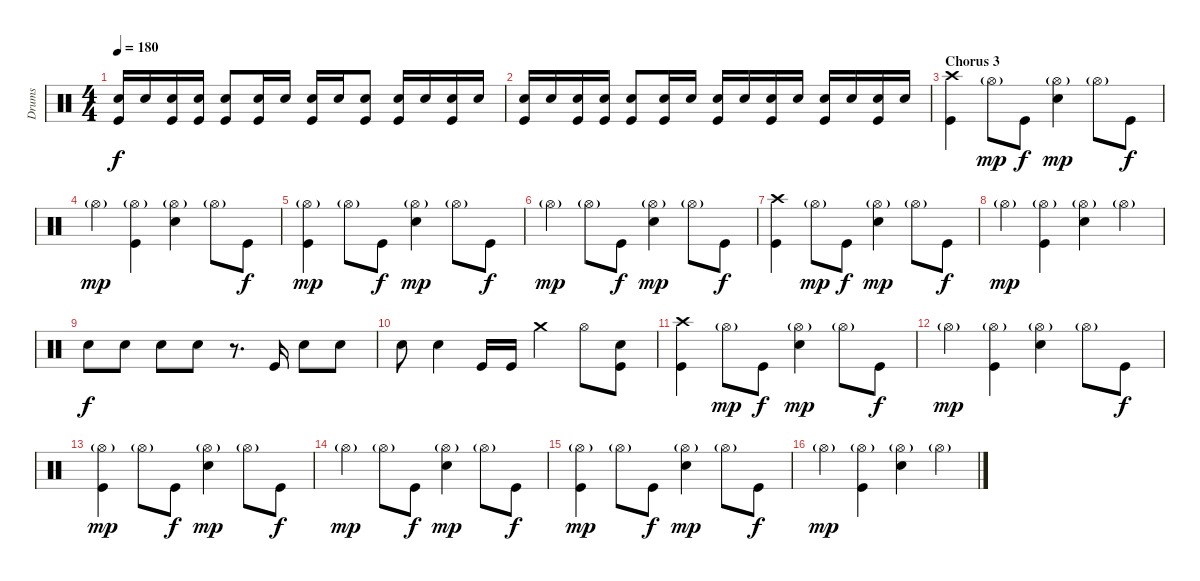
\track ("Drums" "Drums") {instrument percussion}
\staff {score}
\articulation defaults
\ts (4 4)
\tempo 180
\clef neutral
\ks c
("Electric Snare (hit)" "Kick (hit)").16{dy f} "Electric Snare (hit)".16 ("Electric Snare (hit)" "Kick (hit)").16 ("Electric Snare (hit)" "Kick (hit)").16 ("Electric Snare (hit)" "Kick (hit)").8 ("Electric Snare (hit)" "Kick (hit)").16 "Electric Snare (hit)".16 ("Electric Snare (hit)" "Kick (hit)").16 "Electric Snare (hit)".16 ("Electric Snare (hit)" "Kick (hit)").8 ("Electric Snare (hit)" "Kick (hit)").16 "Electric Snare (hit)".16 ("Electric Snare (hit)" "Kick (hit)").16 "Electric Snare (hit)".16 |
("Electric Snare (hit)" "Kick (hit)").16 "Electric Snare (hit)".16 ("Electric Snare (hit)" "Kick (hit)").16 ("Electric Snare (hit)" "Kick (hit)").16 ("Electric Snare (hit)" "Kick (hit)").8 ("Electric Snare (hit)" "Kick (hit)").16 "Electric Snare (hit)".16 ("Electric Snare (hit)" "Kick (hit)").16 "Electric Snare (hit)".16 ("Electric Snare (hit)" "Kick (hit)").16 "Electric Snare (hit)".16 ("Electric Snare (hit)" "Kick (hit)").16 "Electric Snare (hit)".16 ("Electric Snare (hit)" "Kick (hit)").16 "Electric Snare (hit)".16 |
\section ("" "Chorus 3")
("Crash high (hit)" "Kick (hit)").4 "Hi-Hat (open)"{g}.8{dy mp} "Kick (hit)".8{dy f} ("Hi-Hat (open)"{g} "Snare (hit) 2").4{dy mp} "Hi-Hat (open)"{g}.8 "Kick (hit)".8{dy f} |
"Hi-Hat (open)"{g}.4{dy mp} ("Hi-Hat (open)"{g} "Kick (hit)").4 ("Hi-Hat (open)"{g} "Snare (hit) 2").4 "Hi-Hat (open)"{g}.8 "Kick (hit)".8{dy f} |
("Hi-Hat (open)"{g} "Kick (hit)").4{dy mp} "Hi-Hat (open)"{g}.8 "Kick (hit)".8{dy f} ("Hi-Hat (open)"{g} "Snare (hit) 2").4{dy mp} "Hi-Hat (open)"{g}.8 "Kick (hit)".8{dy f} |
"Hi-Hat (open)"{g}.4{dy mp} "Hi-Hat (open)"{g}.8 "Kick (hit)".8{dy f} ("Hi-Hat (open)"{g} "Snare (hit) 2").4{dy mp} "Hi-Hat (open)"{g}.8 "Kick (hit)".8{dy f} |
("Crash high (hit)" "Kick (hit)").4 "Hi-Hat (open)"{g}.8{dy mp} "Kick (hit)".8{dy f} ("Hi-Hat (open)"{g} "Snare (hit) 2").4{dy mp} "Hi-Hat (open)"{g}.8 "Kick (hit)".8{dy f} |
"Hi-Hat (open)"{g}.4{dy mp} ("Hi-Hat (open)"{g} "Kick (hit)").4 ("Hi-Hat (open)"{g} "Snare (hit) 2").4 "Hi-Hat (open)"{g}.4 |
"Electric Snare (hit)".8{dy f} "Electric Snare (hit)".8 "Electric Snare (hit)".8 "Electric Snare (hit)".8 r.8{d} "Kick (hit)".16 "Electric Snare (hit)".8 "Electric Snare (hit)".8 |
"Electric Snare (hit)".8 "Electric Snare (hit)".4 "Kick (hit)".16 "Kick (hit)".16 "Crash medium (hit)".4 "Hi-Hat (open)".8 ("Electric Snare (hit)" "Kick (hit)").8 |
("Crash high (hit)" "Kick (hit)").4 "Hi-Hat (open)"{g}.8{dy mp} "Kick (hit)".8{dy f} ("Hi-Hat (open)"{g} "Snare (hit) 2").4{dy mp} "Hi-Hat (open)"{g}.8 "Kick (hit)".8{dy f} |
"Hi-Hat (open)"{g}.4{dy mp} ("Hi-Hat (open)"{g} "Kick (hit)").4 ("Hi-Hat (open)"{g} "Snare (hit) 2").4 "Hi-Hat (open)"{g}.8 "Kick (hit)".8{dy f} |
("Hi-Hat (open)"{g} "Kick (hit)").4{dy mp} "Hi-Hat (open)"{g}.8 "Kick (hit)".8{dy f} ("Hi-Hat (open)"{g} "Snare (hit) 2").4{dy mp} "Hi-Hat (open)"{g}.8 "Kick (hit)".8{dy f} |
"Hi-Hat (open)"{g}.4{dy mp} "Hi-Hat (open)"{g}.8 "Kick (hit)".8{dy f} ("Hi-Hat (open)"{g} "Snare (hit) 2").4{dy mp} "Hi-Hat (open)"{g}.8 "Kick (hit)".8{dy f} |
("Hi-Hat (open)"{g} "Kick (hit)").4{dy mp} "Hi-Hat (open)"{g}.8 "Kick (hit)".8{dy f} ("Hi-Hat (open)"{g} "Snare (hit) 2").4{dy mp} "Hi-Hat (open)"{g}.8 "Kick (hit)".8{dy f} |
"Hi-Hat (open)"{g}.4{dy mp} ("Hi-Hat (open)"{g} "Kick (hit)").4 ("Hi-Hat (open)"{g} "Snare (hit) 2").4 "Hi-Hat (open)"{g}.4
